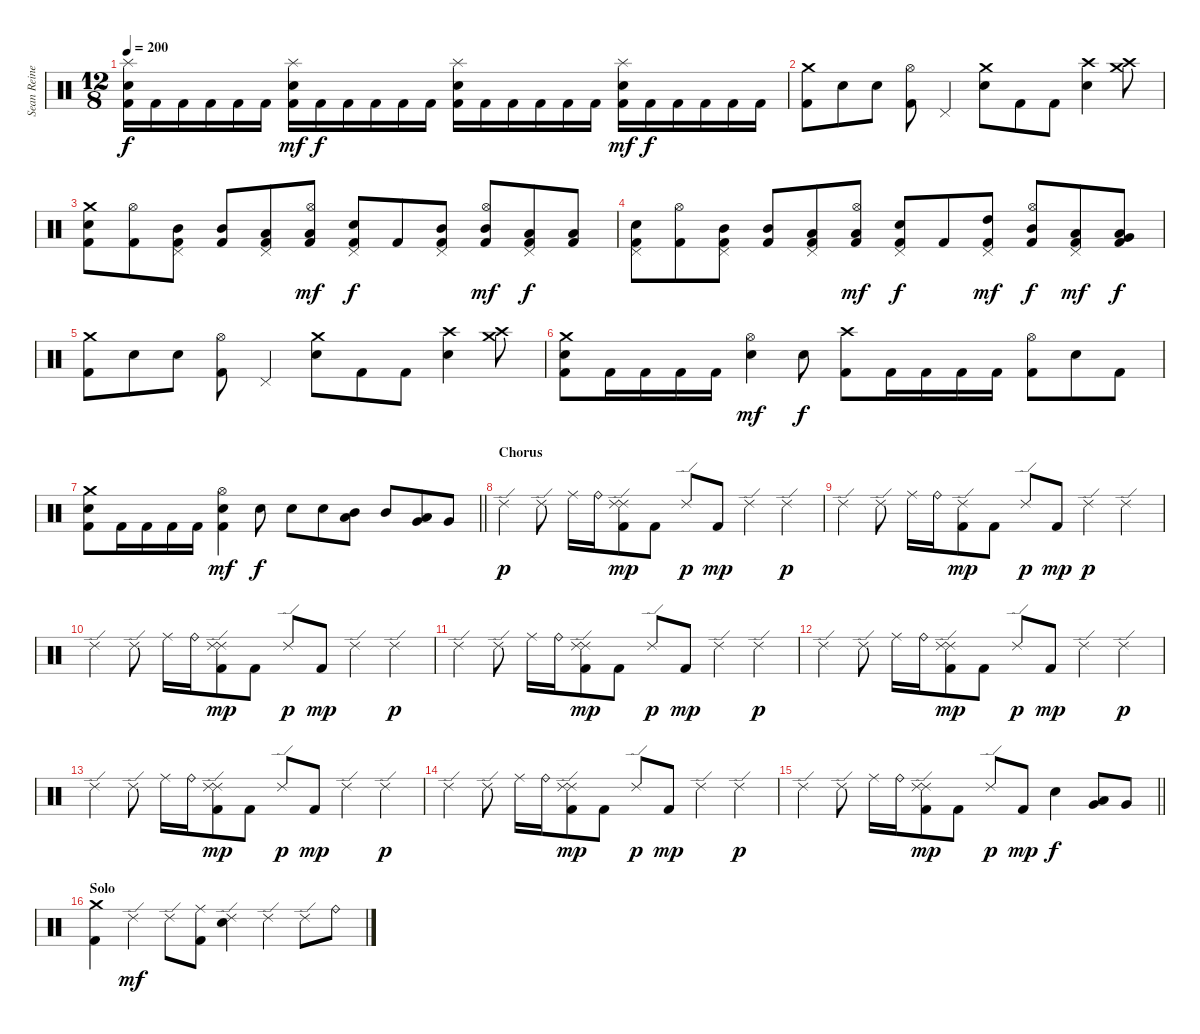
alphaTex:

\track ("Sean Reinert" "Sean Reine") {instrument percussion}
\staff {score}
\articulation defaults
\ts (12 8)
\tempo 200
\clef neutral
\ks c
("Splash (hit)" "Snare (hit) 2" "Kick (hit) 2").16{dy f} "Kick (hit) 2".16 "Kick (hit) 2".16 "Kick (hit) 2".16 "Kick (hit) 2".16 "Kick (hit) 2".16 ("Splash (hit)" "Snare (hit) 2" "Kick (hit) 2").16{dy mf} "Kick (hit) 2".16{dy f} "Kick (hit) 2".16 "Kick (hit) 2".16 "Kick (hit) 2".16 "Kick (hit) 2".16 ("Splash (hit)" "Snare (hit) 2" "Kick (hit) 2").16 "Kick (hit) 2".16 "Kick (hit) 2".16 "Kick (hit) 2".16 "Kick (hit) 2".16 "Kick (hit) 2".16 ("Splash (hit)" "Snare (hit) 2" "Kick (hit) 2").16{dy mf} "Kick (hit) 2".16{dy f} "Kick (hit) 2".16 "Kick (hit) 2".16 "Kick (hit) 2".16 "Kick (hit) 2".16 |
("Crash medium (hit)" "Kick (hit) 2").8 "Snare (hit) 2".8 "Snare (hit) 2".8 ("Hi-Hat (open)" "Kick (hit) 2").8 "Pedal Hi-Hat (hit)".4 ("Crash medium (hit)" "Snare (hit) 2").8 "Kick (hit) 2".8 "Kick (hit) 2".8 ("Crash high (hit)" "Snare (hit) 2").4 ("Crash high (hit)" "Crash medium (hit)").8 |
("Crash medium (hit)" "Snare (hit) 2" "Kick (hit) 2").8 ("Hi-Hat (open)" "Kick (hit) 2").8 ("Pedal Hi-Hat (hit)" "Mid Tom (hit)" "Kick (hit) 2").8 ("Mid Tom (hit)" "Kick (hit) 2").8 ("Pedal Hi-Hat (hit)" "Low Tom (hit)" "Kick (hit) 2").8 ("Hi-Hat (open)" "Low Tom (hit)" "Kick (hit) 2").8{dy mf} ("Pedal Hi-Hat (hit)" "Snare (hit) 2" "Kick (hit) 2").8{dy f} "Kick (hit) 2".8 ("Pedal Hi-Hat (hit)" "Mid Tom (hit)" "Kick (hit) 2").8 ("Hi-Hat (open)" "Mid Tom (hit)" "Kick (hit) 2").8{dy mf} ("Pedal Hi-Hat (hit)" "Low Tom (hit)" "Kick (hit) 2").8{dy f} ("Low Tom (hit)" "Kick (hit) 2").8 |
("Pedal Hi-Hat (hit)" "Snare (hit) 2" "Kick (hit) 2").8 ("Hi-Hat (open)" "Kick (hit) 2").8 ("Pedal Hi-Hat (hit)" "Mid Tom (hit)" "Kick (hit) 2").8 ("Mid Tom (hit)" "Kick (hit) 2").8 ("Pedal Hi-Hat (hit)" "Low Tom (hit)" "Kick (hit) 2").8 ("Hi-Hat (open)" "Low Tom (hit)" "Kick (hit) 2").8{dy mf} ("Pedal Hi-Hat (hit)" "Snare (hit) 2" "Kick (hit) 2").8{dy f} "Kick (hit) 2".8 ("Pedal Hi-Hat (hit)" "High Tom (hit)" "Kick (hit) 2").8{dy mf} ("Hi-Hat (open)" "Mid Tom (hit)" "Kick (hit) 2").8{dy f} ("Pedal Hi-Hat (hit)" "Low Tom (hit)" "Kick (hit) 2").8{dy mf} ("Very Low Tom (hit)" "Low Floor Tom (hit)" "Kick (hit) 2").8{dy f} |
("Crash medium (hit)" "Kick (hit) 2").8 "Snare (hit) 2".8 "Snare (hit) 2".8 ("Hi-Hat (open)" "Kick (hit) 2").8 "Pedal Hi-Hat (hit)".4 ("Crash medium (hit)" "Snare (hit) 2").8 "Kick (hit) 2".8 "Kick (hit) 2".8 ("Crash high (hit)" "Snare (hit) 2").4 ("Crash high (hit)" "Crash medium (hit)").8 |
("Crash medium (hit)" "Snare (hit) 2" "Kick (hit) 2").8 "Kick (hit) 2".16 "Kick (hit) 2".16 "Kick (hit) 2".16 "Kick (hit) 2".16 ("Hi-Hat (open)" "Snare (hit) 2").4{dy mf} "Snare (hit) 2".8{dy f} ("Crash high (hit)" "Kick (hit) 2").8 "Kick (hit) 2".16 "Kick (hit) 2".16 "Kick (hit) 2".16 "Kick (hit) 2".16 ("Hi-Hat (open)" "Kick (hit) 2").8 "Snare (hit) 2".8 "Kick (hit) 2".8 |
\barLineRight lightlight
("Crash medium (hit)" "Snare (hit) 2" "Kick (hit) 2").8 "Kick (hit) 2".16 "Kick (hit) 2".16 "Kick (hit) 2".16 "Kick (hit) 2".16 ("Hi-Hat (open)" "Snare (hit) 2" "Kick (hit) 2").4{dy mf} "Snare (hit) 2".8{dy f} "Snare (hit) 2".8 "Snare (hit) 2".8 ("Low Tom (hit)" "Mid Tom (hit)").8 "Mid Tom (hit)".8 ("Very Low Tom (hit)" "Low Tom (hit)").8 "Very Low Tom (hit)".8 |
\section ("" "Chorus")
"Ride (edge) 2".4{dy p} "Ride (edge) 2".8 "Ride (middle)".16 "Ride (bell)".16 ("Ride (edge) 2" "Ride (edge) 2" "Kick (hit) 2").8{dy mp} "Kick (hit) 2".8 "Ride (edge) 2".8{dy p} "Kick (hit) 2".8{dy mp} "Ride (edge) 2".4 "Ride (edge) 2".4{dy p} |
"Ride (edge) 2".4 "Ride (edge) 2".8 "Ride (middle)".16 "Ride (bell)".16 ("Ride (edge) 2" "Kick (hit) 2").8{dy mp} "Kick (hit) 2".8 "Ride (edge) 2".8{dy p} "Kick (hit) 2".8{dy mp} "Ride (edge) 2".4{dy p} "Ride (edge) 2".4 |
"Ride (edge) 2".4 "Ride (edge) 2".8 "Ride (middle)".16 "Ride (bell)".16 ("Ride (edge) 2" "Ride (edge) 2" "Kick (hit) 2").8{dy mp} "Kick (hit) 2".8 "Ride (edge) 2".8{dy p} "Kick (hit) 2".8{dy mp} "Ride (edge) 2".4 "Ride (edge) 2".4{dy p} |
"Ride (edge) 2".4 "Ride (edge) 2".8 "Ride (middle)".16 "Ride (bell)".16 ("Ride (edge) 2" "Ride (edge) 2" "Kick (hit) 2").8{dy mp} "Kick (hit) 2".8 "Ride (edge) 2".8{dy p} "Kick (hit) 2".8{dy mp} "Ride (edge) 2".4 "Ride (edge) 2".4{dy p} |
"Ride (edge) 2".4 "Ride (edge) 2".8 "Ride (middle)".16 "Ride (bell)".16 ("Ride (edge) 2" "Ride (edge) 2" "Kick (hit) 2").8{dy mp} "Kick (hit) 2".8 "Ride (edge) 2".8{dy p} "Kick (hit) 2".8{dy mp} "Ride (edge) 2".4 "Ride (edge) 2".4{dy p} |
"Ride (edge) 2".4 "Ride (edge) 2".8 "Ride (middle)".16 "Ride (bell)".16 ("Ride (edge) 2" "Ride (edge) 2" "Kick (hit) 2").8{dy mp} "Kick (hit) 2".8 "Ride (edge) 2".8{dy p} "Kick (hit) 2".8{dy mp} "Ride (edge) 2".4 "Ride (edge) 2".4{dy p} |
"Ride (edge) 2".4 "Ride (edge) 2".8 "Ride (middle)".16 "Ride (bell)".16 ("Ride (edge) 2" "Ride (edge) 2" "Kick (hit) 2").8{dy mp} "Kick (hit) 2".8 "Ride (edge) 2".8{dy p} "Kick (hit) 2".8{dy mp} "Ride (edge) 2".4 "Ride (edge) 2".4{dy p} |
\barLineRight lightlight "Ride (edge) 2".4 "Ride (edge) 2".8 "Ride (middle)".16 "Ride (bell)".16
("Ride (edge) 2" "Ride (edge) 2" "Kick (hit) 2").8{dy mp} "Kick (hit) 2".8 "Ride (edge) 2".8{dy p} "Kick (hit) 2".8{dy mp} "Snare (hit) 2".4{dy f} ("Very Low Tom (hit)" "Low Tom (hit)").8 "Very Low Tom (hit)".8 |
\section ("" "Solo")
("Crash medium (hit)" "Kick (hit) 2").4 "Ride (edge) 2".4{dy mf} "Ride (edge) 2".8 ("Ride (middle)" "Kick (hit) 2").8 ("Ride (edge) 2" "Snare (hit) 2").4 "Ride (edge) 2".4 "Ride (edge) 2".8 "Ride (bell)".8
